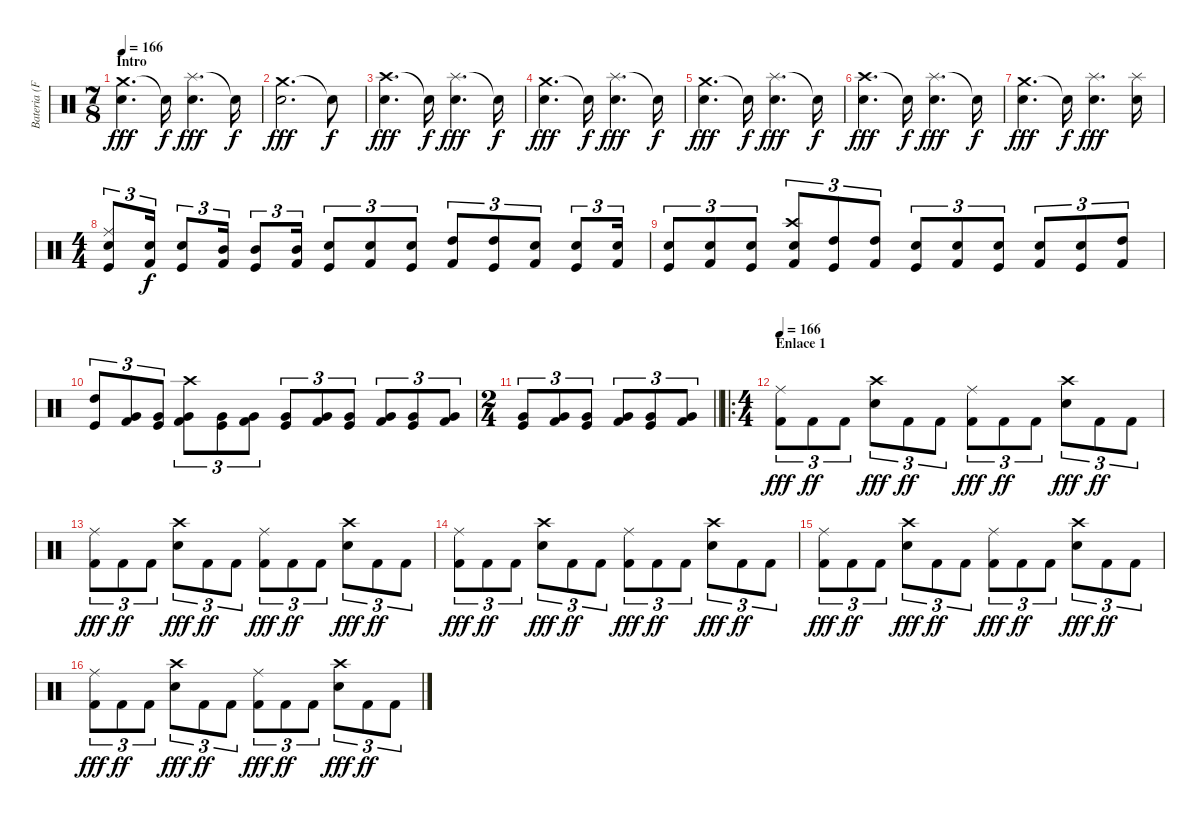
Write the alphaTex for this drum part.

\track ("Bateria (Fernando Scarcella)" "Bateria (F") {instrument percussion}
\staff {score}
\articulation defaults
\ts (7 8)
\section ("" "Intro")
\tempo 166
\tempo 155
\tempo 166
\clef neutral
\ks c
("Crash medium (hit)" "Snare (hit) 2").4{d dy fff} "Snare (hit)"{t}.16{dy f} ("Splash (hit)" "Snare (hit) 2").4{d dy fff} "Snare (hit)"{t}.16{dy f} |
("Crash medium (hit)" "Snare (hit) 2").2{d dy fff} "Snare (hit)"{t}.8{dy f} |
("Crash high (hit)" "Snare (hit) 2").4{d dy fff} "Snare (hit)"{t}.16{dy f} ("Splash (hit)" "Snare (hit) 2").4{d dy fff} "Snare (hit)"{t}.16{dy f} |
("Crash medium (hit)" "Snare (hit) 2").4{d dy fff} "Snare (hit)"{t}.16{dy f} ("Splash (hit)" "Snare (hit) 2").4{d dy fff} "Snare (hit)"{t}.16{dy f} |
("Crash medium (hit)" "Snare (hit) 2").4{d dy fff} "Snare (hit)"{t}.16{dy f} ("Splash (hit)" "Snare (hit) 2").4{d dy fff} "Snare (hit)"{t}.16{dy f} |
("Crash high (hit)" "Snare (hit) 2").4{d dy fff} "Snare (hit)"{t}.16{dy f} ("Splash (hit)" "Snare (hit) 2").4{d dy fff} "Snare (hit)"{t}.16{dy f} |
("Crash medium (hit)" "Snare (hit) 2").4{d dy fff} "Snare (hit)"{t}.16{dy f} ("Splash (hit)" "Snare (hit) 2").4{d dy fff} ("Splash (hit)" "Snare (hit) 2").16 |
\ts (4 4)
("Snare (hit) 2" "Ride (middle)" "Kick (hit)").8{tu (3 2)} ("Snare (hit) 2" "Kick (hit) 2").16{tu (3 2) dy f} ("Snare (hit) 2" "Kick (hit)").8{tu (3 2)} ("Mid Tom (hit)" "Kick (hit) 2").16{tu (3 2)} ("Mid Tom (hit)" "Kick (hit)").8{tu (3 2)} ("Mid Tom (hit)" "Kick (hit) 2").16{tu (3 2)} ("Snare (hit) 2" "Kick (hit)").8{tu (3 2)} ("Snare (hit) 2" "Kick (hit) 2").8{tu (3 2)} ("Snare (hit) 2" "Kick (hit)").8{tu (3 2)} ("High Tom (hit)" "Kick (hit) 2").8{tu (3 2)} ("High Tom (hit)" "Kick (hit)").8{tu (3 2)} ("Snare (hit) 2" "Kick (hit) 2").8{tu (3 2)} ("Snare (hit) 2" "Kick (hit)").8{tu (3 2)} ("Electric Snare (hit)" "Kick (hit) 2").16{tu (3 2)} |
("Snare (hit) 2" "Kick (hit)").8{tu (3 2)} ("Snare (hit) 2" "Kick (hit) 2").8{tu (3 2)} ("Snare (hit) 2" "Kick (hit)").8{tu (3 2)} ("Crash high (hit)" "Snare (hit) 2" "Kick (hit) 2").8{tu (3 2)} ("High Tom (hit)" "Kick (hit)").8{tu (3 2)} ("High Tom (hit)" "Kick (hit) 2").8{tu (3 2)} ("Snare (hit) 2" "Kick (hit)").8{tu (3 2)} ("Snare (hit) 2" "Kick (hit) 2").8{tu (3 2)} ("Snare (hit) 2" "Kick (hit)").8{tu (3 2)} ("Snare (hit) 2" "Kick (hit) 2").8{tu (3 2)} ("Snare (hit) 2" "Kick (hit)").8{tu (3 2)} ("High Tom (hit)" "Kick (hit) 2").8{tu (3 2)} |
("High Tom (hit)" "Kick (hit)").8{tu (3 2)} ("Very Low Tom (hit)" "Kick (hit) 2").8{tu (3 2)} ("Very Low Tom (hit)" "Kick (hit)").8{tu (3 2)} ("Crash high (hit)" "Very Low Tom (hit)" "Kick (hit) 2").8{tu (3 2)} ("Very Low Tom (hit)" "Kick (hit)").8{tu (3 2)} ("Very Low Tom (hit)" "Kick (hit) 2").8{tu (3 2)} ("Very Low Tom (hit)" "Kick (hit)").8{tu (3 2)} ("Very Low Tom (hit)" "Kick (hit) 2").8{tu (3 2)} ("Very Low Tom (hit)" "Kick (hit)").8{tu (3 2)} ("Very Low Tom (hit)" "Kick (hit) 2").8{tu (3 2)} ("Very Low Tom (hit)" "Kick (hit)").8{tu (3 2)} ("Very Low Tom (hit)" "Kick (hit) 2").8{tu (3 2)} |
\ts (2 4)
\barLineRight lightlight
("Very Low Tom (hit)" "Kick (hit)").8{tu (3 2)} ("Very Low Tom (hit)" "Kick (hit) 2").8{tu (3 2)} ("Very Low Tom (hit)" "Kick (hit)").8{tu (3 2)} ("Very Low Tom (hit)" "Kick (hit) 2").8{tu (3 2)} ("Very Low Tom (hit)" "Kick (hit)").8{tu (3 2)} ("Very Low Tom (hit)" "Kick (hit) 2").8{tu (3 2)} |
\ro
\ts (4 4)
\section ("" "Enlace 1")
\tempo 166
("Kick (hit) 2" "Ride (middle)").8{tu (3 2) dy fff} "Kick (hit) 2".8{tu (3 2) dy ff} "Kick (hit) 2".8{tu (3 2)} ("Electric Snare (hit)" "Crash high (hit)").8{tu (3 2) dy fff} "Kick (hit) 2".8{tu (3 2) dy ff} "Kick (hit) 2".8{tu (3 2)} ("Kick (hit) 2" "Ride (middle)").8{tu (3 2) dy fff} "Kick (hit) 2".8{tu (3 2) dy ff} "Kick (hit) 2".8{tu (3 2)} ("Electric Snare (hit)" "Crash high (hit)").8{tu (3 2) dy fff} "Kick (hit) 2".8{tu (3 2) dy ff} "Kick (hit) 2".8{tu (3 2)} |
("Kick (hit) 2" "Ride (middle)").8{tu (3 2) dy fff} "Kick (hit) 2".8{tu (3 2) dy ff} "Kick (hit) 2".8{tu (3 2)} ("Electric Snare (hit)" "Crash high (hit)").8{tu (3 2) dy fff} "Kick (hit) 2".8{tu (3 2) dy ff} "Kick (hit) 2".8{tu (3 2)} ("Kick (hit) 2" "Ride (middle)").8{tu (3 2) dy fff} "Kick (hit) 2".8{tu (3 2) dy ff} "Kick (hit) 2".8{tu (3 2)} ("Electric Snare (hit)" "Crash high (hit)").8{tu (3 2) dy fff} "Kick (hit) 2".8{tu (3 2) dy ff} "Kick (hit) 2".8{tu (3 2)} |
("Kick (hit) 2" "Ride (middle)").8{tu (3 2) dy fff} "Kick (hit) 2".8{tu (3 2) dy ff} "Kick (hit) 2".8{tu (3 2)} ("Electric Snare (hit)" "Crash high (hit)").8{tu (3 2) dy fff} "Kick (hit) 2".8{tu (3 2) dy ff} "Kick (hit) 2".8{tu (3 2)} ("Kick (hit) 2" "Ride (middle)").8{tu (3 2) dy fff} "Kick (hit) 2".8{tu (3 2) dy ff} "Kick (hit) 2".8{tu (3 2)} ("Electric Snare (hit)" "Crash high (hit)").8{tu (3 2) dy fff} "Kick (hit) 2".8{tu (3 2) dy ff} "Kick (hit) 2".8{tu (3 2)} |
("Kick (hit) 2" "Ride (middle)").8{tu (3 2) dy fff} "Kick (hit) 2".8{tu (3 2) dy ff} "Kick (hit) 2".8{tu (3 2)} ("Electric Snare (hit)" "Crash high (hit)").8{tu (3 2) dy fff} "Kick (hit) 2".8{tu (3 2) dy ff} "Kick (hit) 2".8{tu (3 2)} ("Kick (hit) 2" "Ride (middle)").8{tu (3 2) dy fff} "Kick (hit) 2".8{tu (3 2) dy ff} "Kick (hit) 2".8{tu (3 2)} ("Electric Snare (hit)" "Crash high (hit)").8{tu (3 2) dy fff} "Kick (hit) 2".8{tu (3 2) dy ff} "Kick (hit) 2".8{tu (3 2)} |
("Kick (hit) 2" "Ride (middle)").8{tu (3 2) dy fff} "Kick (hit) 2".8{tu (3 2) dy ff} "Kick (hit) 2".8{tu (3 2)} ("Electric Snare (hit)" "Crash high (hit)").8{tu (3 2) dy fff} "Kick (hit) 2".8{tu (3 2) dy ff} "Kick (hit) 2".8{tu (3 2)} ("Kick (hit) 2" "Ride (middle)").8{tu (3 2) dy fff} "Kick (hit) 2".8{tu (3 2) dy ff} "Kick (hit) 2".8{tu (3 2)} ("Electric Snare (hit)" "Crash high (hit)").8{tu (3 2) dy fff} "Kick (hit) 2".8{tu (3 2) dy ff} "Kick (hit) 2".8{tu (3 2)}
